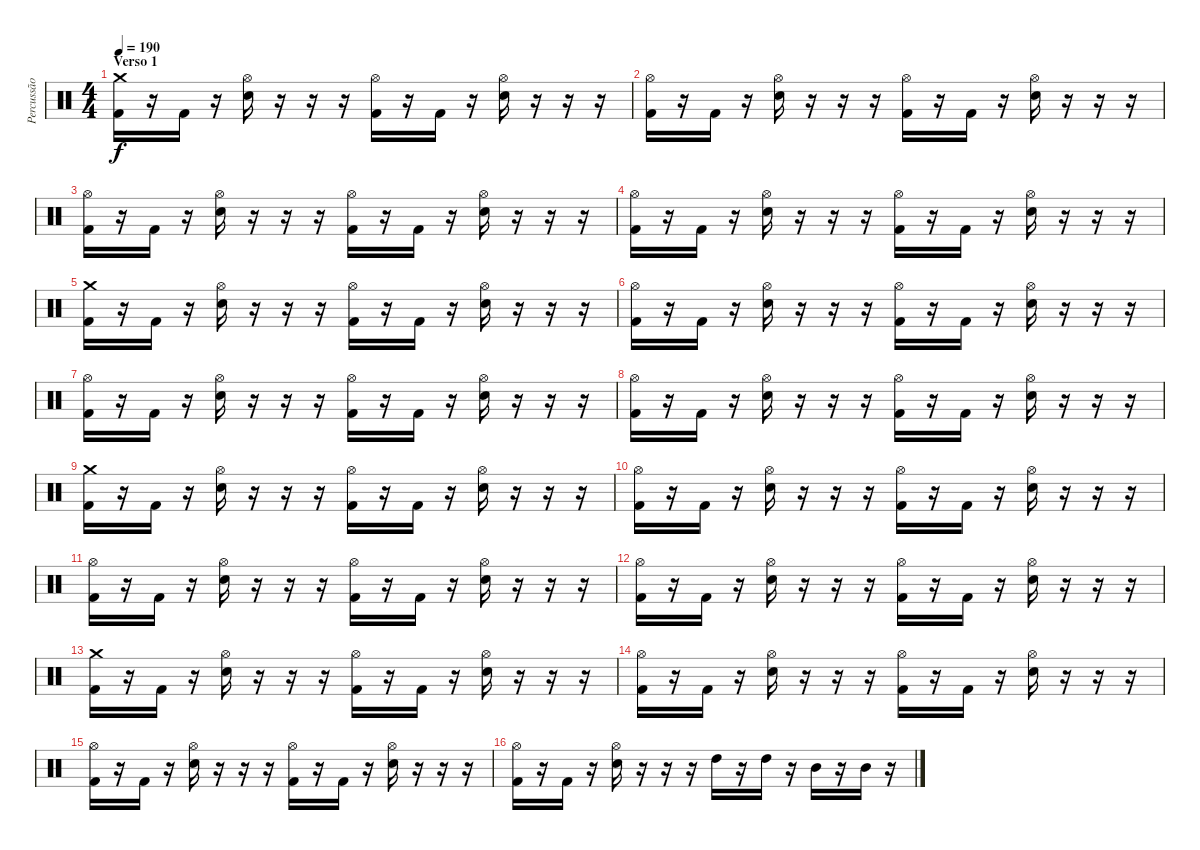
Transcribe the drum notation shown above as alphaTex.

\track ("Percussão" "Percussão") {instrument percussion}
\staff {score}
\articulation defaults
\ts (4 4)
\section ("" "Verso 1")
\tempo 190
\clef neutral
\ks c
("Crash medium (hit)" "Kick (hit) 2").16{dy f} r.16 "Kick (hit) 2".16 r.16 ("Hi-Hat (open)" "Electric Snare (hit)").16 r.16 r.16 r.16 ("Hi-Hat (open)" "Kick (hit) 2").16 r.16 "Kick (hit) 2".16 r.16 ("Hi-Hat (open)" "Electric Snare (hit)").16 r.16 r.16 r.16 |
("Hi-Hat (open)" "Kick (hit) 2").16 r.16 "Kick (hit) 2".16 r.16 ("Hi-Hat (open)" "Electric Snare (hit)").16 r.16 r.16 r.16 ("Hi-Hat (open)" "Kick (hit) 2").16 r.16 "Kick (hit) 2".16 r.16 ("Hi-Hat (open)" "Electric Snare (hit)").16 r.16 r.16 r.16 |
("Hi-Hat (open)" "Kick (hit) 2").16 r.16 "Kick (hit) 2".16 r.16 ("Hi-Hat (open)" "Electric Snare (hit)").16 r.16 r.16 r.16 ("Hi-Hat (open)" "Kick (hit) 2").16 r.16 "Kick (hit) 2".16 r.16 ("Hi-Hat (open)" "Electric Snare (hit)").16 r.16 r.16 r.16 |
("Hi-Hat (open)" "Kick (hit) 2").16 r.16 "Kick (hit) 2".16 r.16 ("Hi-Hat (open)" "Electric Snare (hit)").16 r.16 r.16 r.16 ("Hi-Hat (open)" "Kick (hit) 2").16 r.16 "Kick (hit) 2".16 r.16 ("Hi-Hat (open)" "Electric Snare (hit)").16 r.16 r.16 r.16 |
("Crash medium (hit)" "Kick (hit) 2").16 r.16 "Kick (hit) 2".16 r.16 ("Hi-Hat (open)" "Electric Snare (hit)").16 r.16 r.16 r.16 ("Hi-Hat (open)" "Kick (hit) 2").16 r.16 "Kick (hit) 2".16 r.16 ("Hi-Hat (open)" "Electric Snare (hit)").16 r.16 r.16 r.16 |
("Hi-Hat (open)" "Kick (hit) 2").16 r.16 "Kick (hit) 2".16 r.16 ("Hi-Hat (open)" "Electric Snare (hit)").16 r.16 r.16 r.16 ("Hi-Hat (open)" "Kick (hit) 2").16 r.16 "Kick (hit) 2".16 r.16 ("Hi-Hat (open)" "Electric Snare (hit)").16 r.16 r.16 r.16 |
("Hi-Hat (open)" "Kick (hit) 2").16 r.16 "Kick (hit) 2".16 r.16 ("Hi-Hat (open)" "Electric Snare (hit)").16 r.16 r.16 r.16 ("Hi-Hat (open)" "Kick (hit) 2").16 r.16 "Kick (hit) 2".16 r.16 ("Hi-Hat (open)" "Electric Snare (hit)").16 r.16 r.16 r.16 |
("Hi-Hat (open)" "Kick (hit) 2").16 r.16 "Kick (hit) 2".16 r.16 ("Hi-Hat (open)" "Electric Snare (hit)").16 r.16 r.16 r.16 ("Hi-Hat (open)" "Kick (hit) 2").16 r.16 "Kick (hit) 2".16 r.16 ("Hi-Hat (open)" "Electric Snare (hit)").16 r.16 r.16 r.16 |
("Crash medium (hit)" "Kick (hit) 2").16 r.16 "Kick (hit) 2".16 r.16 ("Hi-Hat (open)" "Electric Snare (hit)").16 r.16 r.16 r.16 ("Hi-Hat (open)" "Kick (hit) 2").16 r.16 "Kick (hit) 2".16 r.16 ("Hi-Hat (open)" "Electric Snare (hit)").16 r.16 r.16 r.16 |
("Hi-Hat (open)" "Kick (hit) 2").16 r.16 "Kick (hit) 2".16 r.16 ("Hi-Hat (open)" "Electric Snare (hit)").16 r.16 r.16 r.16 ("Hi-Hat (open)" "Kick (hit) 2").16 r.16 "Kick (hit) 2".16 r.16 ("Hi-Hat (open)" "Electric Snare (hit)").16 r.16 r.16 r.16 |
("Hi-Hat (open)" "Kick (hit) 2").16 r.16 "Kick (hit) 2".16 r.16 ("Hi-Hat (open)" "Electric Snare (hit)").16 r.16 r.16 r.16 ("Hi-Hat (open)" "Kick (hit) 2").16 r.16 "Kick (hit) 2".16 r.16 ("Hi-Hat (open)" "Electric Snare (hit)").16 r.16 r.16 r.16 |
("Hi-Hat (open)" "Kick (hit) 2").16 r.16 "Kick (hit) 2".16 r.16 ("Hi-Hat (open)" "Electric Snare (hit)").16 r.16 r.16 r.16 ("Hi-Hat (open)" "Kick (hit) 2").16 r.16 "Kick (hit) 2".16 r.16 ("Hi-Hat (open)" "Electric Snare (hit)").16 r.16 r.16 r.16 |
("Crash medium (hit)" "Kick (hit) 2").16 r.16 "Kick (hit) 2".16 r.16 ("Hi-Hat (open)" "Electric Snare (hit)").16 r.16 r.16 r.16 ("Hi-Hat (open)" "Kick (hit) 2").16 r.16 "Kick (hit) 2".16 r.16 ("Hi-Hat (open)" "Electric Snare (hit)").16 r.16 r.16 r.16 |
("Hi-Hat (open)" "Kick (hit) 2").16 r.16 "Kick (hit) 2".16 r.16 ("Hi-Hat (open)" "Electric Snare (hit)").16 r.16 r.16 r.16 ("Hi-Hat (open)" "Kick (hit) 2").16 r.16 "Kick (hit) 2".16 r.16 ("Hi-Hat (open)" "Electric Snare (hit)").16 r.16 r.16 r.16 |
("Hi-Hat (open)" "Kick (hit) 2").16 r.16 "Kick (hit) 2".16 r.16 ("Hi-Hat (open)" "Electric Snare (hit)").16 r.16 r.16 r.16 ("Hi-Hat (open)" "Kick (hit) 2").16 r.16 "Kick (hit) 2".16 r.16 ("Hi-Hat (open)" "Electric Snare (hit)").16 r.16 r.16 r.16 |
("Hi-Hat (open)" "Kick (hit) 2").16 r.16 "Kick (hit) 2".16 r.16 ("Hi-Hat (open)" "Electric Snare (hit)").16 r.16 r.16 r.16 "High Tom (hit)".16 r.16 "High Tom (hit)".16 r.16 "Mid Tom (hit)".16 r.16 "Mid Tom (hit)".16 r.16
